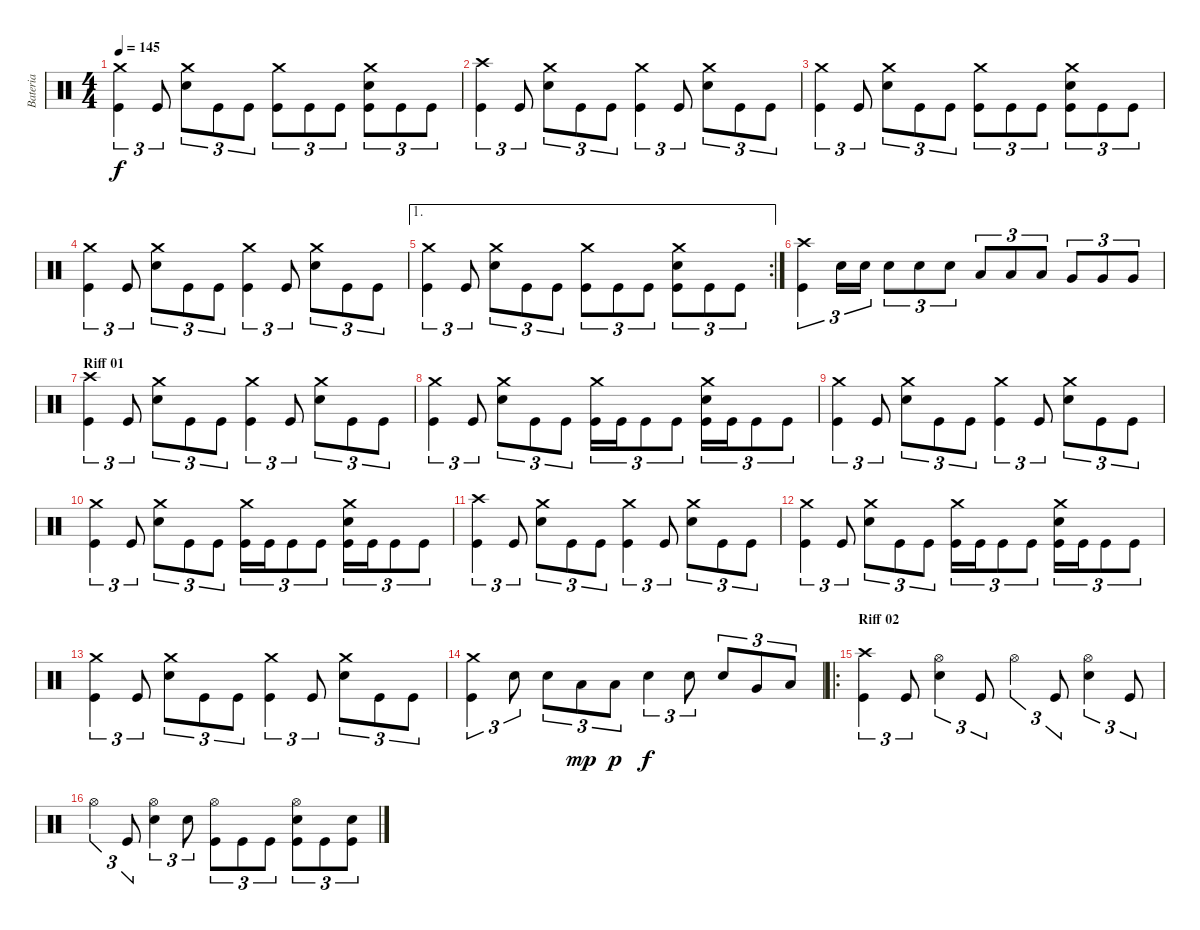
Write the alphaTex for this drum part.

\track ("Bateria" "Bateria") {instrument percussion}
\staff {score}
\articulation defaults
\ts (4 4)
\tempo 145
\clef neutral
\ks c
("Crash medium (hit)" "Kick (hit)").4{tu (3 2) dy f} "Kick (hit)".8{tu (3 2)} ("Crash medium (hit)" "Snare (hit) 2").8{tu (3 2)} "Kick (hit)".8{tu (3 2)} "Kick (hit)".8{tu (3 2)} ("Crash medium (hit)" "Kick (hit)").8{tu (3 2)} "Kick (hit)".8{tu (3 2)} "Kick (hit)".8{tu (3 2)} ("Crash medium (hit)" "Snare (hit) 2" "Kick (hit)").8{tu (3 2)} "Kick (hit)".8{tu (3 2)} "Kick (hit)".8{tu (3 2)} |
("Crash high (hit)" "Kick (hit)").4{tu (3 2)} "Kick (hit)".8{tu (3 2)} ("Crash medium (hit)" "Snare (hit) 2").8{tu (3 2)} "Kick (hit)".8{tu (3 2)} "Kick (hit)".8{tu (3 2)} ("Crash medium (hit)" "Kick (hit)").4{tu (3 2)} "Kick (hit)".8{tu (3 2)} ("Crash medium (hit)" "Snare (hit) 2").8{tu (3 2)} "Kick (hit)".8{tu (3 2)} "Kick (hit)".8{tu (3 2)} |
("Crash medium (hit)" "Kick (hit)").4{tu (3 2)} "Kick (hit)".8{tu (3 2)} ("Crash medium (hit)" "Snare (hit) 2").8{tu (3 2)} "Kick (hit)".8{tu (3 2)} "Kick (hit)".8{tu (3 2)} ("Crash medium (hit)" "Kick (hit)").8{tu (3 2)} "Kick (hit)".8{tu (3 2)} "Kick (hit)".8{tu (3 2)} ("Crash medium (hit)" "Snare (hit) 2" "Kick (hit)").8{tu (3 2)} "Kick (hit)".8{tu (3 2)} "Kick (hit)".8{tu (3 2)} |
("Crash medium (hit)" "Kick (hit)").4{tu (3 2)} "Kick (hit)".8{tu (3 2)} ("Crash medium (hit)" "Snare (hit) 2").8{tu (3 2)} "Kick (hit)".8{tu (3 2)} "Kick (hit)".8{tu (3 2)} ("Crash medium (hit)" "Kick (hit)").4{tu (3 2)} "Kick (hit)".8{tu (3 2)} ("Crash medium (hit)" "Snare (hit) 2").8{tu (3 2)} "Kick (hit)".8{tu (3 2)} "Kick (hit)".8{tu (3 2)} |
\ae 1
\rc 2
("Crash medium (hit)" "Kick (hit)").4{tu (3 2)} "Kick (hit)".8{tu (3 2)} ("Crash medium (hit)" "Snare (hit) 2").8{tu (3 2)} "Kick (hit)".8{tu (3 2)} "Kick (hit)".8{tu (3 2)} ("Crash medium (hit)" "Kick (hit)").8{tu (3 2)} "Kick (hit)".8{tu (3 2)} "Kick (hit)".8{tu (3 2)} ("Crash medium (hit)" "Snare (hit) 2" "Kick (hit)").8{tu (3 2)} "Kick (hit)".8{tu (3 2)} "Kick (hit)".8{tu (3 2)} |
("Crash high (hit)" "Kick (hit)").4{tu (3 2)} "Snare (hit) 2".16{tu (3 2)} "Snare (hit) 2".16{tu (3 2)} "Snare (hit) 2".8{tu (3 2)} "Snare (hit) 2".8{tu (3 2)} "Snare (hit) 2".8{tu (3 2)} "Low Tom (hit)".8{tu (3 2)} "Low Tom (hit)".8{tu (3 2)} "Low Tom (hit)".8{tu (3 2)} "Very Low Tom (hit)".8{tu (3 2)} "Very Low Tom (hit)".8{tu (3 2)} "Very Low Tom (hit)".8{tu (3 2)} |
\section ("" "Riff 01")
("Crash high (hit)" "Kick (hit)").4{tu (3 2)} "Kick (hit)".8{tu (3 2)} ("Crash medium (hit)" "Snare (hit) 2").8{tu (3 2)} "Kick (hit)".8{tu (3 2)} "Kick (hit)".8{tu (3 2)} ("Crash medium (hit)" "Kick (hit)").4{tu (3 2)} "Kick (hit)".8{tu (3 2)} ("Crash medium (hit)" "Snare (hit) 2").8{tu (3 2)} "Kick (hit)".8{tu (3 2)} "Kick (hit)".8{tu (3 2)} |
("Crash medium (hit)" "Kick (hit)").4{tu (3 2)} "Kick (hit)".8{tu (3 2)} ("Crash medium (hit)" "Snare (hit) 2").8{tu (3 2)} "Kick (hit)".8{tu (3 2)} "Kick (hit)".8{tu (3 2)} ("Crash medium (hit)" "Kick (hit)").16{tu (3 2)} "Kick (hit)".16{tu (3 2)} "Kick (hit)".8{tu (3 2)} "Kick (hit)".8{tu (3 2)} ("Crash medium (hit)" "Snare (hit) 2" "Kick (hit)").16{tu (3 2)} "Kick (hit)".16{tu (3 2)} "Kick (hit)".8{tu (3 2)} "Kick (hit)".8{tu (3 2)} |
("Crash medium (hit)" "Kick (hit)").4{tu (3 2)} "Kick (hit)".8{tu (3 2)} ("Crash medium (hit)" "Snare (hit) 2").8{tu (3 2)} "Kick (hit)".8{tu (3 2)} "Kick (hit)".8{tu (3 2)} ("Crash medium (hit)" "Kick (hit)").4{tu (3 2)} "Kick (hit)".8{tu (3 2)} ("Crash medium (hit)" "Snare (hit) 2").8{tu (3 2)} "Kick (hit)".8{tu (3 2)} "Kick (hit)".8{tu (3 2)} |
("Crash medium (hit)" "Kick (hit)").4{tu (3 2)} "Kick (hit)".8{tu (3 2)} ("Crash medium (hit)" "Snare (hit) 2").8{tu (3 2)} "Kick (hit)".8{tu (3 2)} "Kick (hit)".8{tu (3 2)} ("Crash medium (hit)" "Kick (hit)").16{tu (3 2)} "Kick (hit)".16{tu (3 2)} "Kick (hit)".8{tu (3 2)} "Kick (hit)".8{tu (3 2)} ("Crash medium (hit)" "Snare (hit) 2" "Kick (hit)").16{tu (3 2)} "Kick (hit)".16{tu (3 2)} "Kick (hit)".8{tu (3 2)} "Kick (hit)".8{tu (3 2)} |
("Crash high (hit)" "Kick (hit)").4{tu (3 2)} "Kick (hit)".8{tu (3 2)} ("Crash medium (hit)" "Snare (hit) 2").8{tu (3 2)} "Kick (hit)".8{tu (3 2)} "Kick (hit)".8{tu (3 2)} ("Crash medium (hit)" "Kick (hit)").4{tu (3 2)} "Kick (hit)".8{tu (3 2)} ("Crash medium (hit)" "Snare (hit) 2").8{tu (3 2)} "Kick (hit)".8{tu (3 2)} "Kick (hit)".8{tu (3 2)} |
("Crash medium (hit)" "Kick (hit)").4{tu (3 2)} "Kick (hit)".8{tu (3 2)} ("Crash medium (hit)" "Snare (hit) 2").8{tu (3 2)} "Kick (hit)".8{tu (3 2)} "Kick (hit)".8{tu (3 2)} ("Crash medium (hit)" "Kick (hit)").16{tu (3 2)} "Kick (hit)".16{tu (3 2)} "Kick (hit)".8{tu (3 2)} "Kick (hit)".8{tu (3 2)} ("Crash medium (hit)" "Snare (hit) 2" "Kick (hit)").16{tu (3 2)} "Kick (hit)".16{tu (3 2)} "Kick (hit)".8{tu (3 2)} "Kick (hit)".8{tu (3 2)} |
("Crash medium (hit)" "Kick (hit)").4{tu (3 2)} "Kick (hit)".8{tu (3 2)} ("Crash medium (hit)" "Snare (hit) 2").8{tu (3 2)} "Kick (hit)".8{tu (3 2)} "Kick (hit)".8{tu (3 2)} ("Crash medium (hit)" "Kick (hit)").4{tu (3 2)} "Kick (hit)".8{tu (3 2)} ("Crash medium (hit)" "Snare (hit) 2").8{tu (3 2)} "Kick (hit)".8{tu (3 2)} "Kick (hit)".8{tu (3 2)} |
("Crash medium (hit)" "Kick (hit)").4{tu (3 2)} "Snare (hit) 2".8{tu (3 2)} "Snare (hit) 2".8{tu (3 2)} "Low Tom (hit)".8{tu (3 2) dy mp} "Low Tom (hit)".8{tu (3 2) dy p} "Snare (hit) 2".4{tu (3 2) dy f} "Snare (hit) 2".8{tu (3 2)} "Snare (hit) 2".8{tu (3 2)} "Very Low Tom (hit)".8{tu (3 2)} "Low Floor Tom (hit)".8{tu (3 2)} |
\ro
\section ("" "Riff 02")
("Crash high (hit)" "Kick (hit)").4{tu (3 2)} "Kick (hit)".8{tu (3 2)} ("Hi-Hat (open)" "Snare (hit) 2").4{tu (3 2)} "Kick (hit)".8{tu (3 2)} "Hi-Hat (open)".4{tu (3 2)} "Kick (hit)".8{tu (3 2)} ("Hi-Hat (open)" "Snare (hit) 2").4{tu (3 2)} "Kick (hit)".8{tu (3 2)} |
"Hi-Hat (open)".4{tu (3 2)} "Kick (hit)".8{tu (3 2)} ("Hi-Hat (open)" "Snare (hit) 2").4{tu (3 2)} "Snare (hit) 2".8{tu (3 2)} ("Hi-Hat (open)" "Kick (hit)").8{tu (3 2)} "Kick (hit)".8{tu (3 2)} "Kick (hit)".8{tu (3 2)} ("Hi-Hat (open)" "Snare (hit) 2" "Kick (hit)").8{tu (3 2)} "Kick (hit)".8{tu (3 2)} ("Snare (hit) 2" "Kick (hit)").8{tu (3 2)}
